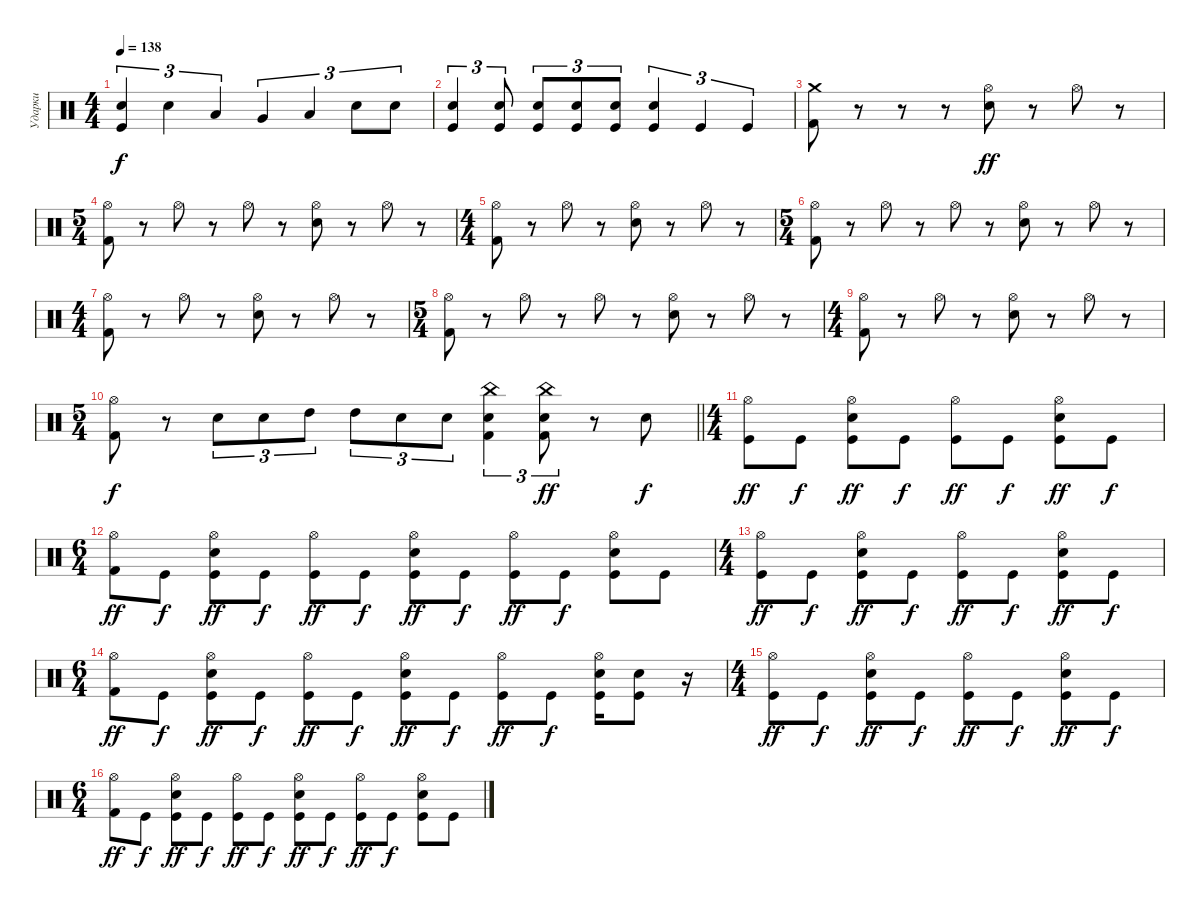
\track ("Ударки" "Ударки") {instrument percussion}
\staff {score}
\articulation defaults
\ts (4 4)
\tempo 138
\clef neutral
\ks c
("Kick (hit)" "Snare (hit) 2").4{tu (3 2) dy f} "Snare (hit) 2".4{tu (3 2)} "Low Tom (hit)".4{tu (3 2)} "Very Low Tom (hit)".4{tu (3 2)} "Low Floor Tom (hit)".4{tu (3 2)} "Snare (hit) 2".8{tu (3 2)} "Snare (hit) 2".8{tu (3 2)} |
("Kick (hit)" "Snare (hit) 2").4{tu (3 2)} ("Kick (hit)" "Snare (hit) 2").8{tu (3 2)} ("Kick (hit)" "Snare (hit) 2").8{tu (3 2)} ("Snare (hit) 2" "Kick (hit)").8{tu (3 2)} ("Snare (hit) 2" "Kick (hit)").8{tu (3 2)} ("Snare (hit) 2" "Kick (hit)").4{tu (3 2)} "Kick (hit)".4{tu (3 2)} "Kick (hit)".4{tu (3 2)} |
("Kick (hit) 2" "Crash medium (hit)").8 r.8 r.8 r.8 ("Snare (hit) 2" "Hi-Hat (open)").8{dy ff} r.8 "Hi-Hat (open)".8 r.8 |
\ts (5 4)
("Kick (hit) 2" "Hi-Hat (open)").8 r.8 "Hi-Hat (open)".8 r.8 "Hi-Hat (open)".8 r.8 ("Snare (hit) 2" "Hi-Hat (open)").8 r.8 "Hi-Hat (open)".8 r.8 |
\ts (4 4)
("Kick (hit) 2" "Hi-Hat (open)").8 r.8 "Hi-Hat (open)".8 r.8 ("Snare (hit) 2" "Hi-Hat (open)").8 r.8 "Hi-Hat (open)".8 r.8 |
\ts (5 4)
("Kick (hit) 2" "Hi-Hat (open)").8 r.8 "Hi-Hat (open)".8 r.8 "Hi-Hat (open)".8 r.8 ("Snare (hit) 2" "Hi-Hat (open)").8 r.8 "Hi-Hat (open)".8 r.8 |
\ts (4 4)
("Kick (hit) 2" "Hi-Hat (open)").8 r.8 "Hi-Hat (open)".8 r.8 ("Snare (hit) 2" "Hi-Hat (open)").8 r.8 "Hi-Hat (open)".8 r.8 |
\ts (5 4)
("Kick (hit) 2" "Hi-Hat (open)").8 r.8 "Hi-Hat (open)".8 r.8 "Hi-Hat (open)".8 r.8 ("Snare (hit) 2" "Hi-Hat (open)").8 r.8 "Hi-Hat (open)".8 r.8 |
\ts (4 4)
("Kick (hit) 2" "Hi-Hat (open)").8 r.8 "Hi-Hat (open)".8 r.8 ("Snare (hit) 2" "Hi-Hat (open)").8 r.8 "Hi-Hat (open)".8 r.8 |
\ts (5 4)
\barLineRight lightlight
("Hi-Hat (open)" "Kick (hit) 2").8{dy f} r.8 "Snare (hit) 2".8{tu (3 2)} "Snare (hit) 2".8{tu (3 2)} "High Tom (hit)".8{tu (3 2)} "High Tom (hit)".8{tu (3 2)} "Snare (hit) 2".8{tu (3 2)} "Snare (hit) 2".8{tu (3 2)} ("Kick (hit) 2" "Snare (hit) 2" "China (hit)").4{tu (3 2)} ("Kick (hit) 2" "Snare (hit) 2" "China (hit)").8{tu (3 2) dy ff} r.8 "Snare (hit) 2".8{dy f} |
\ts (4 4)
("Kick (hit)" "Hi-Hat (open)").8{dy ff} "Kick (hit)".8{dy f} ("Kick (hit)" "Snare (hit) 2" "Hi-Hat (open)").8{dy ff} "Kick (hit)".8{dy f} ("Kick (hit)" "Hi-Hat (open)").8{dy ff} "Kick (hit)".8{dy f} ("Kick (hit)" "Snare (hit) 2" "Hi-Hat (open)").8{dy ff} "Kick (hit)".8{dy f} |
\ts (6 4)
("Kick (hit) 2" "Hi-Hat (open)").8{dy ff} "Kick (hit)".8{dy f} ("Kick (hit)" "Snare (hit) 2" "Hi-Hat (open)").8{dy ff} "Kick (hit)".8{dy f} ("Kick (hit)" "Hi-Hat (open)").8{dy ff} "Kick (hit)".8{dy f} ("Kick (hit)" "Snare (hit) 2" "Hi-Hat (open)").8{dy ff} "Kick (hit)".8{dy f} ("Kick (hit)" "Hi-Hat (open)").8{dy ff} "Kick (hit)".8{dy f} ("Hi-Hat (open)" "Kick (hit)" "Snare (hit) 2").8 "Kick (hit)".8 |
\ts (4 4)
("Kick (hit)" "Hi-Hat (open)").8{dy ff} "Kick (hit)".8{dy f} ("Kick (hit)" "Snare (hit) 2" "Hi-Hat (open)").8{dy ff} "Kick (hit)".8{dy f} ("Kick (hit)" "Hi-Hat (open)").8{dy ff} "Kick (hit)".8{dy f} ("Kick (hit)" "Snare (hit) 2" "Hi-Hat (open)").8{dy ff} "Kick (hit)".8{dy f} |
\ts (6 4)
("Kick (hit) 2" "Hi-Hat (open)").8{dy ff} "Kick (hit)".8{dy f} ("Kick (hit)" "Snare (hit) 2" "Hi-Hat (open)").8{dy ff} "Kick (hit)".8{dy f} ("Kick (hit)" "Hi-Hat (open)").8{dy ff} "Kick (hit)".8{dy f} ("Kick (hit)" "Snare (hit) 2" "Hi-Hat (open)").8{dy ff} "Kick (hit)".8{dy f} ("Kick (hit)" "Hi-Hat (open)").8{dy ff} "Kick (hit)".8{dy f} ("Hi-Hat (open)" "Kick (hit)" "Snare (hit) 2").16 ("Kick (hit)" "Snare (hit) 2").8 r.16 |
\ts (4 4)
("Kick (hit)" "Hi-Hat (open)").8{dy ff} "Kick (hit)".8{dy f} ("Kick (hit)" "Snare (hit) 2" "Hi-Hat (open)").8{dy ff} "Kick (hit)".8{dy f} ("Kick (hit)" "Hi-Hat (open)").8{dy ff} "Kick (hit)".8{dy f} ("Kick (hit)" "Snare (hit) 2" "Hi-Hat (open)").8{dy ff} "Kick (hit)".8{dy f} |
\ts (6 4)
("Kick (hit) 2" "Hi-Hat (open)").8{dy ff} "Kick (hit)".8{dy f} ("Kick (hit)" "Snare (hit) 2" "Hi-Hat (open)").8{dy ff} "Kick (hit)".8{dy f} ("Kick (hit)" "Hi-Hat (open)").8{dy ff} "Kick (hit)".8{dy f} ("Kick (hit)" "Snare (hit) 2" "Hi-Hat (open)").8{dy ff} "Kick (hit)".8{dy f} ("Kick (hit)" "Hi-Hat (open)").8{dy ff} "Kick (hit)".8{dy f} ("Hi-Hat (open)" "Kick (hit)" "Snare (hit) 2").8 "Kick (hit)".8
